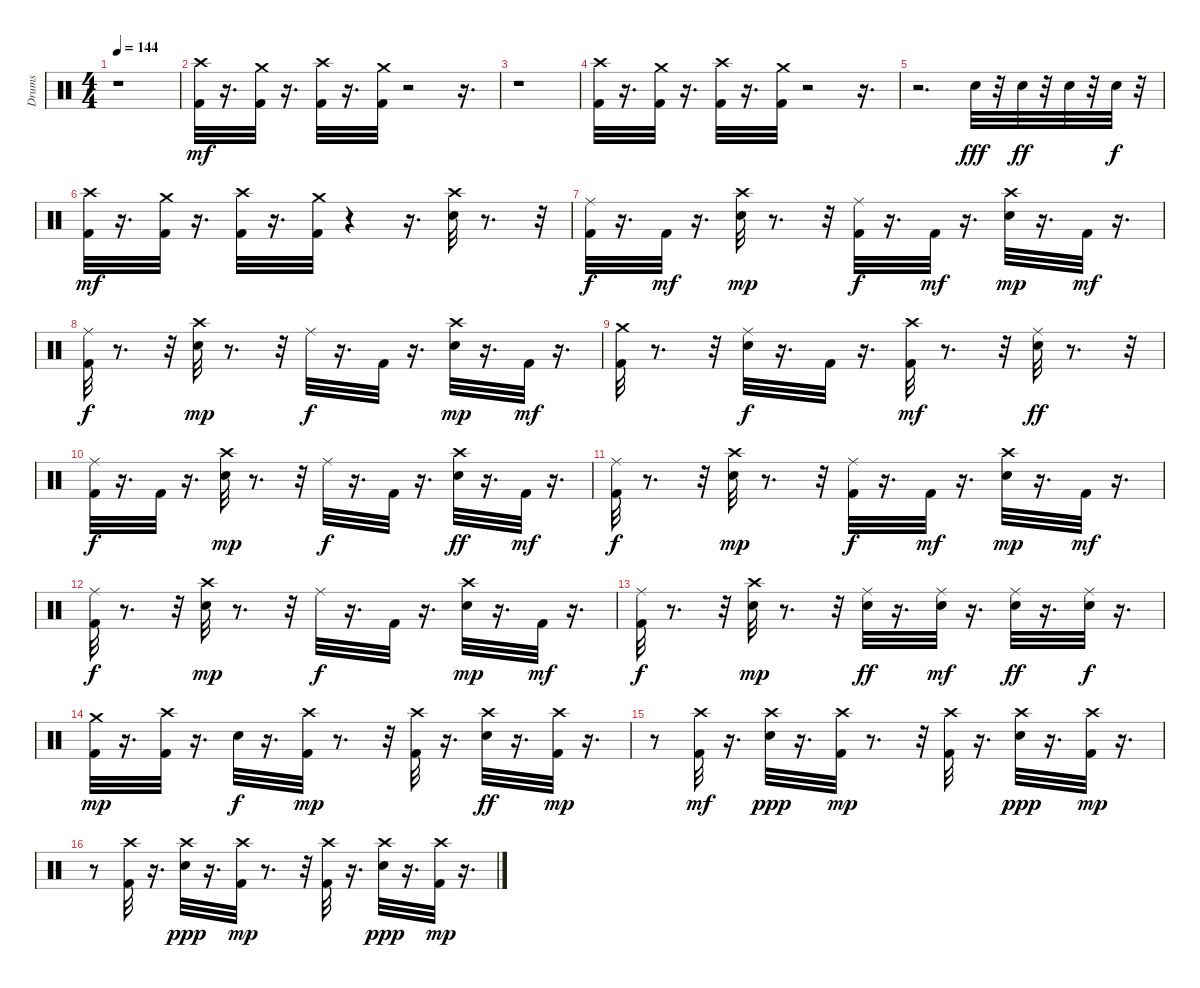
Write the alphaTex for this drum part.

\track ("Drums" "Drums") {instrument percussion}
\staff {score}
\articulation defaults
\ts (4 4)
\tempo 144
\clef neutral
\ks c
r.1{dy mf} |
("Crash high (hit)" "Kick (hit) 2").32 r.16{d} ("Kick (hit) 2" "Crash medium (hit)").32 r.16{d} ("Kick (hit) 2" "Crash high (hit)").32 r.16{d} ("Kick (hit) 2" "Crash medium (hit)").32 r.2 r.16{d} |
r.1 |
("Crash high (hit)" "Kick (hit) 2").32 r.16{d} ("Kick (hit) 2" "Crash medium (hit)").32 r.16{d} ("Kick (hit) 2" "Crash high (hit)").32 r.16{d} ("Kick (hit) 2" "Crash medium (hit)").32 r.2 r.16{d} |
r.2{d} "Snare (hit) 2".32{dy fff} r.32 "Snare (hit) 2".32{dy ff} r.32 "Snare (hit) 2".32 r.32 "Snare (hit) 2".32{dy f} r.32 |
("Crash high (hit)" "Kick (hit) 2").32{dy mf} r.16{d} ("Kick (hit) 2" "Crash medium (hit)").32 r.16{d} ("Kick (hit) 2" "Crash high (hit)").32 r.16{d} ("Kick (hit) 2" "Crash medium (hit)").32 r.4 r.16{d} ("Crash high (hit)" "Snare (hit) 2").32 r.8{d} r.32 |
("Ride (middle)" "Kick (hit) 2").32{dy f} r.16{d} "Kick (hit) 2".32{dy mf} r.16{d} ("Crash high (hit)" "Snare (hit) 2").32{dy mp} r.8{d} r.32 ("Ride (middle)" "Kick (hit) 2").32{dy f} r.16{d} "Kick (hit) 2".32{dy mf} r.16{d} ("Snare (hit) 2" "Crash high (hit)").32{dy mp} r.16{d} "Kick (hit) 2".32{dy mf} r.16{d} |
("Ride (middle)" "Kick (hit) 2").32{dy f} r.8{d} r.32 ("Crash high (hit)" "Snare (hit) 2").32{dy mp} r.8{d} r.32 "Ride (middle)".32{dy f} r.16{d} "Kick (hit) 2".32 r.16{d} ("Crash high (hit)" "Snare (hit) 2").32{dy mp} r.16{d} "Kick (hit) 2".32{dy mf} r.16{d} |
("Crash medium (hit)" "Kick (hit) 2").32 r.8{d} r.32 ("Ride (middle)" "Snare (hit) 2").32{dy f} r.16{d} "Kick (hit) 2".32 r.16{d} ("Crash high (hit)" "Kick (hit) 2").32{dy mf} r.8{d} r.32 ("Ride (middle)" "Snare (hit) 2").32{dy ff} r.8{d} r.32 |
("Ride (middle)" "Kick (hit) 2").32{dy f} r.16{d} "Kick (hit) 2".32 r.16{d} ("Crash high (hit)" "Snare (hit) 2").32{dy mp} r.8{d} r.32 "Ride (middle)".32{dy f} r.16{d} "Kick (hit) 2".32 r.16{d} ("Crash high (hit)" "Snare (hit) 2").32{dy ff} r.16{d} "Kick (hit) 2".32{dy mf} r.16{d} |
("Ride (middle)" "Kick (hit) 2").32{dy f} r.8{d} r.32 ("Crash high (hit)" "Snare (hit) 2").32{dy mp} r.8{d} r.32 ("Ride (middle)" "Kick (hit) 2").32{dy f} r.16{d} "Kick (hit) 2".32{dy mf} r.16{d} ("Crash high (hit)" "Snare (hit) 2").32{dy mp} r.16{d} "Kick (hit) 2".32{dy mf} r.16{d} |
("Ride (middle)" "Kick (hit) 2").32{dy f} r.8{d} r.32 ("Crash high (hit)" "Snare (hit) 2").32{dy mp} r.8{d} r.32 "Ride (middle)".32{dy f} r.16{d} "Kick (hit) 2".32 r.16{d} ("Crash high (hit)" "Snare (hit) 2").32{dy mp} r.16{d} "Kick (hit) 2".32{dy mf} r.16{d} |
("Ride (middle)" "Kick (hit) 2").32{dy f} r.8{d} r.32 ("Crash high (hit)" "Snare (hit) 2").32{dy mp} r.8{d} r.32 ("Ride (middle)" "Snare (hit) 2").32{dy ff} r.16{d} ("Ride (middle)" "Snare (hit) 2").32{dy mf} r.16{d} ("Ride (middle)" "Snare (hit) 2").32{dy ff} r.16{d} ("Ride (middle)" "Snare (hit) 2").32{dy f} r.16{d} |
("Crash medium (hit)" "Kick (hit) 2").32{dy mp} r.16{d} ("Crash high (hit)" "Kick (hit) 2").32 r.16{d} "Snare (hit) 2".32{dy f} r.16{d} ("Crash high (hit)" "Kick (hit) 2").32{dy mp} r.8{d} r.32 ("Kick (hit) 2" "Crash high (hit)").32 r.16{d} ("Crash high (hit)" "Snare (hit) 2").32{dy ff} r.16{d} ("Crash high (hit)" "Kick (hit) 2").32{dy mp} r.16{d} |
r.8 ("Crash high (hit)" "Kick (hit) 2").32{dy mf} r.16{d} ("Crash high (hit)" "Snare (hit) 2").32{dy ppp} r.16{d} ("Crash high (hit)" "Kick (hit) 2").32{dy mp} r.8{d} r.32 ("Crash high (hit)" "Kick (hit) 2").32 r.16{d} ("Crash high (hit)" "Snare (hit) 2").32{dy ppp} r.16{d} ("Crash high (hit)" "Kick (hit) 2").32{dy mp} r.16{d} |
r.8 ("Crash high (hit)" "Kick (hit) 2").32 r.16{d} ("Crash high (hit)" "Snare (hit) 2").32{dy ppp} r.16{d} ("Crash high (hit)" "Kick (hit) 2").32{dy mp} r.8{d} r.32 ("Crash high (hit)" "Kick (hit) 2").32 r.16{d} ("Crash high (hit)" "Snare (hit) 2").32{dy ppp} r.16{d} ("Crash high (hit)" "Kick (hit) 2").32{dy mp} r.16{d}
